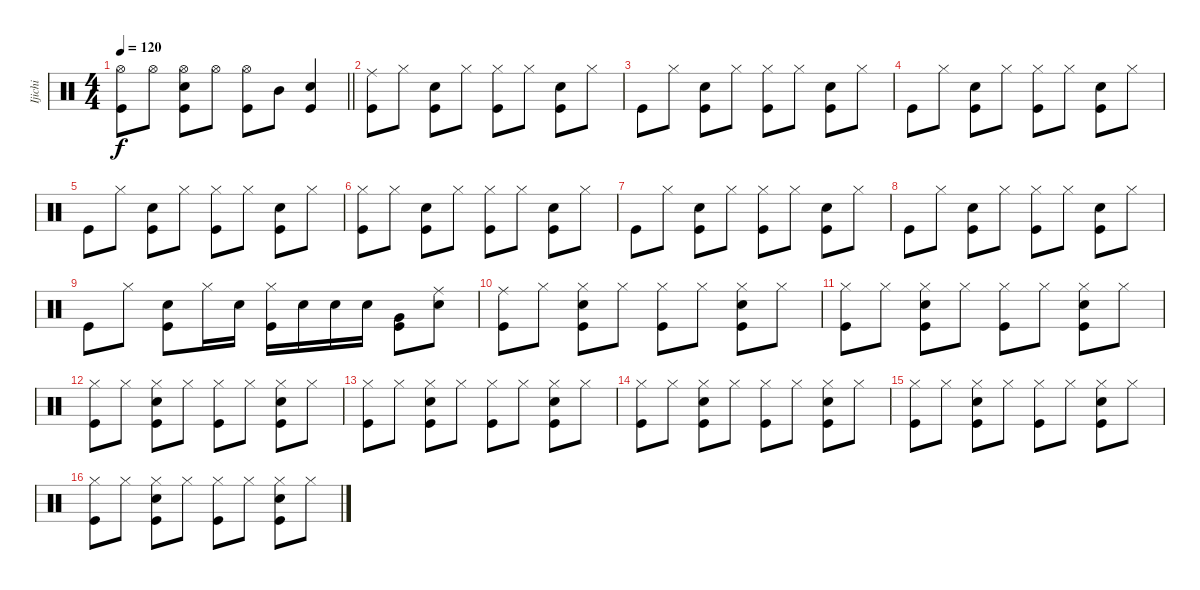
\track ("Ijichi" "Ijichi") {instrument percussion}
\staff {score}
\articulation defaults
\ts (4 4)
\tempo 120
\clef neutral
\barLineRight lightlight
\ks c
("Hi-Hat (open)" "Kick (hit)").8{dy f} "Hi-Hat (open)".8 ("Hi-Hat (open)" "Snare (hit) 2" "Kick (hit)").8 "Hi-Hat (open)".8 ("Hi-Hat (open)" "Kick (hit)").8 "Mid Tom (hit)".8 ("Snare (hit) 2" "Kick (hit)").4 |
("Ride (middle)" "Kick (hit)").8 "Hi-Hat (closed)".8 ("Snare (hit) 2" "Kick (hit)").8 "Hi-Hat (closed)".8 ("Hi-Hat (closed)" "Kick (hit)").8 "Hi-Hat (closed)".8 ("Snare (hit) 2" "Kick (hit)").8 "Hi-Hat (closed)".8 |
"Kick (hit)".8 "Hi-Hat (closed)".8 ("Snare (hit) 2" "Kick (hit)").8 "Hi-Hat (closed)".8 ("Hi-Hat (closed)" "Kick (hit)").8 "Hi-Hat (closed)".8 ("Snare (hit) 2" "Kick (hit)").8 "Hi-Hat (closed)".8 |
"Kick (hit)".8 "Hi-Hat (closed)".8 ("Snare (hit) 2" "Kick (hit)").8 "Hi-Hat (closed)".8 ("Hi-Hat (closed)" "Kick (hit)").8 "Hi-Hat (closed)".8 ("Snare (hit) 2" "Kick (hit)").8 "Hi-Hat (closed)".8 |
"Kick (hit)".8 "Hi-Hat (closed)".8 ("Snare (hit) 2" "Kick (hit)").8 "Hi-Hat (closed)".8 ("Hi-Hat (closed)" "Kick (hit)").8 "Hi-Hat (closed)".8 ("Snare (hit) 2" "Kick (hit)").8 "Hi-Hat (closed)".8 |
("Hi-Hat (closed)" "Kick (hit)").8 "Hi-Hat (closed)".8 ("Snare (hit) 2" "Kick (hit)").8 "Hi-Hat (closed)".8 ("Hi-Hat (closed)" "Kick (hit)").8 "Hi-Hat (closed)".8 ("Snare (hit) 2" "Kick (hit)").8 "Hi-Hat (closed)".8 |
"Kick (hit)".8 "Hi-Hat (closed)".8 ("Snare (hit) 2" "Kick (hit)").8 "Hi-Hat (closed)".8 ("Hi-Hat (closed)" "Kick (hit)").8 "Hi-Hat (closed)".8 ("Snare (hit) 2" "Kick (hit)").8 "Hi-Hat (closed)".8 |
"Kick (hit)".8 "Hi-Hat (closed)".8 ("Snare (hit) 2" "Kick (hit)").8 "Hi-Hat (closed)".8 ("Hi-Hat (closed)" "Kick (hit)").8 "Hi-Hat (closed)".8 ("Snare (hit) 2" "Kick (hit)").8 "Hi-Hat (closed)".8 |
"Kick (hit)".8 "Hi-Hat (closed)".8 ("Snare (hit) 2" "Kick (hit)").8 "Hi-Hat (closed)".16 "Snare (hit) 2".16 ("Hi-Hat (closed)" "Kick (hit)").16 "Snare (hit) 2".16 "Snare (hit) 2".16 "Snare (hit) 2".16 ("Very Low Tom (hit)" "Kick (hit)").8 ("Ride (middle)" "Snare (hit) 2").8 |
("Ride (middle)" "Kick (hit)").8 "Hi-Hat (closed)".8 ("Hi-Hat (closed)" "Snare (hit) 2" "Kick (hit)").8 "Hi-Hat (closed)".8 ("Hi-Hat (closed)" "Kick (hit)").8 "Hi-Hat (closed)".8 ("Hi-Hat (closed)" "Snare (hit) 2" "Kick (hit)").8 "Hi-Hat (closed)".8 |
("Hi-Hat (closed)" "Kick (hit)").8 "Hi-Hat (closed)".8 ("Hi-Hat (closed)" "Snare (hit) 2" "Kick (hit)").8 "Hi-Hat (closed)".8 ("Hi-Hat (closed)" "Kick (hit)").8 "Hi-Hat (closed)".8 ("Hi-Hat (closed)" "Snare (hit) 2" "Kick (hit)").8 "Hi-Hat (closed)".8 |
("Hi-Hat (closed)" "Kick (hit)").8 "Hi-Hat (closed)".8 ("Hi-Hat (closed)" "Snare (hit) 2" "Kick (hit)").8 "Hi-Hat (closed)".8 ("Hi-Hat (closed)" "Kick (hit)").8 "Hi-Hat (closed)".8 ("Hi-Hat (closed)" "Snare (hit) 2" "Kick (hit)").8 "Hi-Hat (closed)".8 |
("Hi-Hat (closed)" "Kick (hit)").8 "Hi-Hat (closed)".8 ("Hi-Hat (closed)" "Snare (hit) 2" "Kick (hit)").8 "Hi-Hat (closed)".8 ("Hi-Hat (closed)" "Kick (hit)").8 "Hi-Hat (closed)".8 ("Hi-Hat (closed)" "Snare (hit) 2" "Kick (hit)").8 "Hi-Hat (closed)".8 |
("Hi-Hat (closed)" "Kick (hit)").8 "Hi-Hat (closed)".8 ("Hi-Hat (closed)" "Snare (hit) 2" "Kick (hit)").8 "Hi-Hat (closed)".8 ("Hi-Hat (closed)" "Kick (hit)").8 "Hi-Hat (closed)".8 ("Hi-Hat (closed)" "Snare (hit) 2" "Kick (hit)").8 "Hi-Hat (closed)".8 |
("Hi-Hat (closed)" "Kick (hit)").8 "Hi-Hat (closed)".8 ("Hi-Hat (closed)" "Snare (hit) 2" "Kick (hit)").8 "Hi-Hat (closed)".8 ("Hi-Hat (closed)" "Kick (hit)").8 "Hi-Hat (closed)".8 ("Hi-Hat (closed)" "Snare (hit) 2" "Kick (hit)").8 "Hi-Hat (closed)".8 |
("Hi-Hat (closed)" "Kick (hit)").8 "Hi-Hat (closed)".8 ("Hi-Hat (closed)" "Snare (hit) 2" "Kick (hit)").8 "Hi-Hat (closed)".8 ("Hi-Hat (closed)" "Kick (hit)").8 "Hi-Hat (closed)".8 ("Hi-Hat (closed)" "Snare (hit) 2" "Kick (hit)").8 "Hi-Hat (closed)".8
